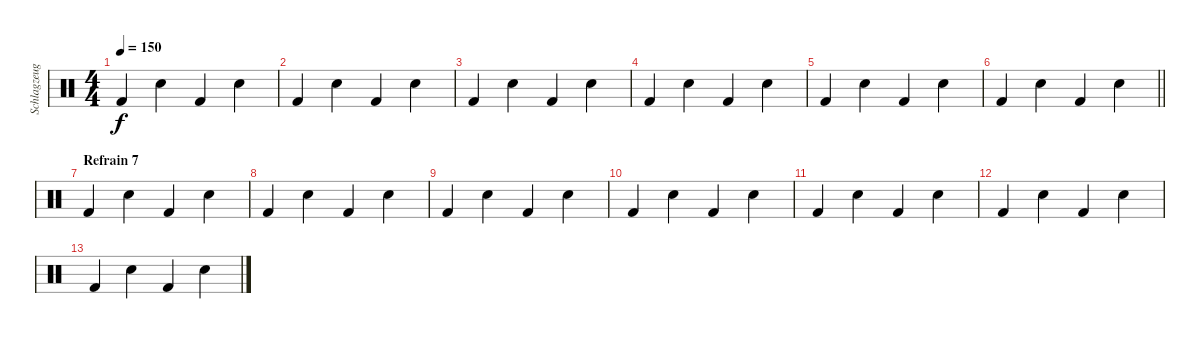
\track ("Schlagzeug" "Schlagzeug") {instrument percussion}
\staff {score}
\articulation defaults
\ts (4 4)
\tempo 150
\clef neutral
\ks c "Kick (hit) 2".4{dy f} "Electric Snare (hit)".4 "Kick (hit) 2".4 "Electric Snare (hit)".4
|
"Kick (hit) 2".4 "Electric Snare (hit)".4 "Kick (hit) 2".4 "Electric Snare (hit)".4 |
"Kick (hit) 2".4 "Electric Snare (hit)".4 "Kick (hit) 2".4 "Electric Snare (hit)".4 |
"Kick (hit) 2".4 "Electric Snare (hit)".4 "Kick (hit) 2".4 "Electric Snare (hit)".4 |
"Kick (hit) 2".4 "Electric Snare (hit)".4 "Kick (hit) 2".4 "Electric Snare (hit)".4 |
\barLineRight lightlight "Kick (hit) 2".4 "Electric Snare (hit)".4 "Kick (hit) 2".4 "Electric Snare (hit)".4
|
\section ("" "Refrain 7")
"Kick (hit) 2".4 "Electric Snare (hit)".4 "Kick (hit) 2".4 "Electric Snare (hit)".4 |
"Kick (hit) 2".4 "Electric Snare (hit)".4 "Kick (hit) 2".4 "Electric Snare (hit)".4 |
"Kick (hit) 2".4 "Electric Snare (hit)".4 "Kick (hit) 2".4 "Electric Snare (hit)".4 |
"Kick (hit) 2".4 "Electric Snare (hit)".4 "Kick (hit) 2".4 "Electric Snare (hit)".4 |
"Kick (hit) 2".4 "Electric Snare (hit)".4 "Kick (hit) 2".4 "Electric Snare (hit)".4 |
"Kick (hit) 2".4 "Electric Snare (hit)".4 "Kick (hit) 2".4 "Electric Snare (hit)".4 |
"Kick (hit) 2".4 "Electric Snare (hit)".4 "Kick (hit) 2".4 "Electric Snare (hit)".4
